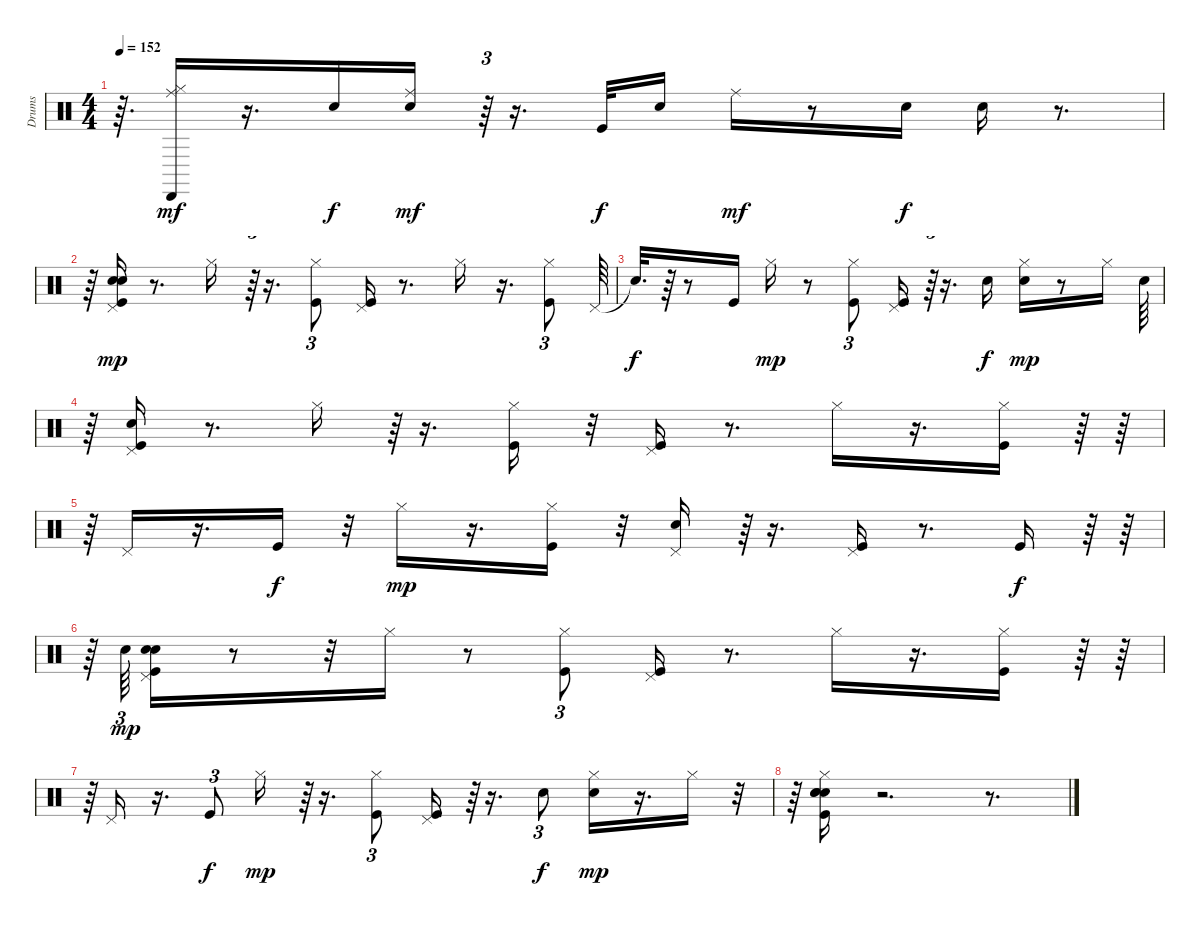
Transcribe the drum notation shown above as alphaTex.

\track ("Drums" "Drums") {instrument percussion}
\staff {score}
\articulation defaults
\ts (4 4)
\tempo 152
\clef neutral
\ks c
r.64{d dy mf} ("Hi-Hat (closed)" "Ride (middle)" "Cabasa (hit)").16 r.16{d} "Snare (hit) 2".16{dy f} ("Ride (middle)" "Snare (hit) 2").16{dy mf} r.64{tu (3 2)} r.16{d} "Kick (hit)".32{dy f} "Snare (hit) 2".16 "Ride (middle)".16{dy mf} r.8 "Snare (hit) 2".16{dy f} "Snare (hit) 2".16 r.8{d} |
r.64 ("Kick (hit)" "Snare (hit) 2" "Pedal Hi-Hat (hit)" "Snare (hit) 2").16{dy mp} r.8{d} "Hi-Hat (closed)".16 r.64{tu (3 2)} r.16{d} ("Kick (hit)" "Hi-Hat (closed)").8{tu (3 2)} ("Kick (hit)" "Pedal Hi-Hat (hit)").16 r.8{d} "Hi-Hat (closed)".16 r.16{d} ("Kick (hit)" "Hi-Hat (closed)").8{tu (3 2)} "Pedal Hi-Hat (hit)".64 |
"Snare (hit)"{t}.32{d dy f} r.64 r.8 "Kick (hit)".16 "Hi-Hat (closed)".16{dy mp} r.8 ("Kick (hit)" "Hi-Hat (closed)").8{tu (3 2)} ("Kick (hit)" "Pedal Hi-Hat (hit)").16 r.64{tu (3 2)} r.16{d} "Snare (hit) 2".16{dy f} ("Snare (hit) 2" "Hi-Hat (closed)").16{dy mp} r.8 "Hi-Hat (closed)".16 "Snare (hit) 2".64 |
r.64 ("Kick (hit)" "Snare (hit) 2" "Pedal Hi-Hat (hit)").16 r.8{d} "Hi-Hat (closed)".16 r.64{tu (3 2)} r.16{d} ("Kick (hit)" "Hi-Hat (closed)").16 r.32 ("Kick (hit)" "Pedal Hi-Hat (hit)").16 r.8{d} "Hi-Hat (closed)".16 r.16{d} ("Kick (hit)" "Hi-Hat (closed)").16 r.64 r.64 |
r.64 "Pedal Hi-Hat (hit)".16 r.16{d} "Kick (hit)".16{dy f} r.32 "Hi-Hat (closed)".16{dy mp} r.16{d} ("Kick (hit)" "Hi-Hat (closed)").16 r.32 ("Pedal Hi-Hat (hit)" "Snare (hit) 2").16 r.64{tu (3 2)} r.16{d} ("Kick (hit)" "Pedal Hi-Hat (hit)").16 r.8{d} "Kick (hit)".16{dy f} r.64 r.64 |
r.64{tu (5 4)} "Snare (hit) 2".64{tu (3 2) dy mp} ("Kick (hit)" "Snare (hit) 2" "Pedal Hi-Hat (hit)" "Snare (hit) 2").16 r.8 r.32 "Hi-Hat (closed)".16 r.8 ("Kick (hit)" "Hi-Hat (closed)").8{tu (3 2)} ("Kick (hit)" "Pedal Hi-Hat (hit)").16 r.8{d} "Hi-Hat (closed)".16 r.16{d} ("Kick (hit)" "Hi-Hat (closed)").16 r.64 r.64 |
r.64{tu (5 4)} "Pedal Hi-Hat (hit)".16 r.16{d} "Kick (hit)".8{tu (3 2) dy f} "Hi-Hat (closed)".16{dy mp} r.64{tu (3 2)} r.16{d} ("Kick (hit)" "Hi-Hat (closed)").8{tu (3 2)} ("Kick (hit)" "Pedal Hi-Hat (hit)").16 r.64{tu (3 2)} r.16{d} "Snare (hit) 2".8{tu (3 2) dy f} ("Hi-Hat (closed)" "Snare (hit) 2").16{dy mp} r.16{d} "Hi-Hat (closed)".16 r.32 |
r.64 ("Snare (hit) 2" "Kick (hit)" "Snare (hit) 2" "Hi-Hat (closed)" "Snare (hit) 2").16 r.2{d} r.8{d}
